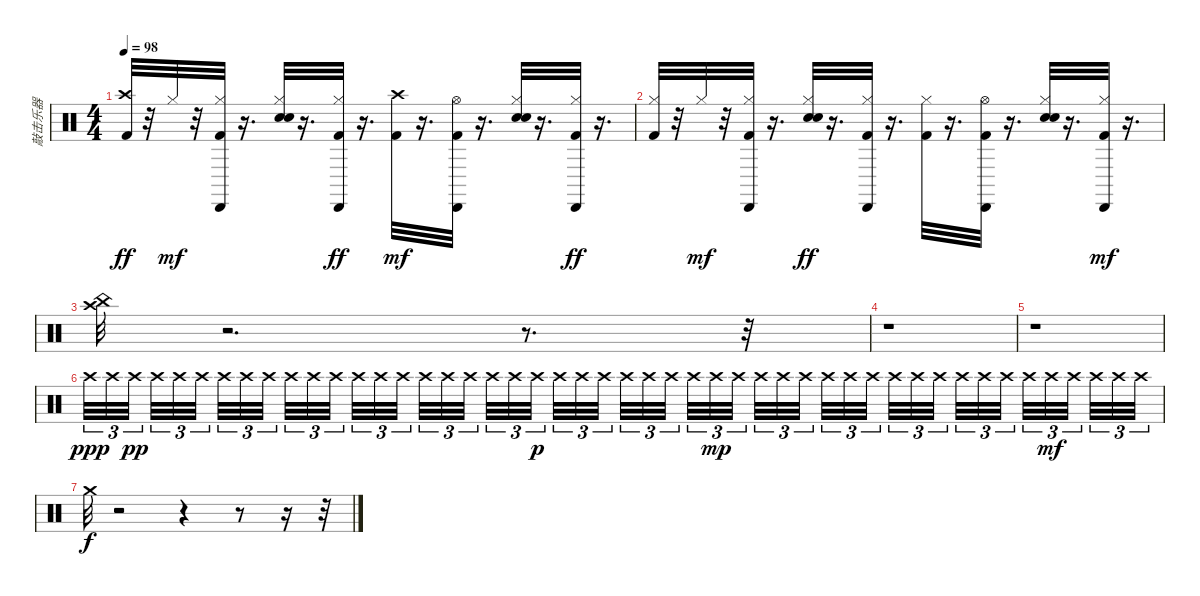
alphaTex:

\track ("敲击乐器" "敲击乐器") {instrument percussion}
\staff {score}
\articulation defaults
\ts (4 4)
\tempo 98
\clef neutral
\ks c
("Crash high (hit)" "Kick (hit) 2").32{dy ff} r.32 "Hi-Hat (closed)".32{dy mf} r.32 ("Kick (hit) 2" "Hi-Hat (closed)" "Cabasa (hit)").32 r.16{d} ("Hand Clap (hit)" "Snare (hit) 2" "Hi-Hat (closed)").32 r.16{d} ("Hi-Hat (closed)" "Cabasa (hit)" "Kick (hit) 2").32{dy ff} r.16{d} ("Kick (hit) 2" "Crash high (hit)").32{dy mf} r.16{d} ("Hi-Hat (open)" "Kick (hit) 2" "Cabasa (hit)").32 r.16{d} ("Hand Clap (hit)" "Snare (hit) 2" "Hi-Hat (closed)").32 r.16{d} ("Cabasa (hit)" "Kick (hit) 2" "Hi-Hat (closed)").32{dy ff} r.16{d} |
("Kick (hit) 2" "Hi-Hat (closed)").32 r.32 "Hi-Hat (closed)".32{dy mf} r.32 ("Cabasa (hit)" "Kick (hit) 2" "Hi-Hat (closed)").32 r.16{d} ("Hi-Hat (closed)" "Hand Clap (hit)" "Snare (hit) 2").32{dy ff} r.16{d} ("Cabasa (hit)" "Hi-Hat (closed)" "Kick (hit) 2").32 r.16{d} ("Kick (hit) 2" "Hi-Hat (closed)").32 r.16{d} ("Kick (hit) 2" "Cabasa (hit)" "Hi-Hat (open)").32 r.16{d} ("Hi-Hat (closed)" "Hand Clap (hit)" "Snare (hit) 2").32 r.16{d} ("Kick (hit) 2" "Hi-Hat (closed)" "Cabasa (hit)").32{dy mf} r.16{d} |
("China (hit)" "Crash high (hit)").32 r.2{d} r.8{d} r.32 |
r.1 |
r.1 |
"Crash high (hit)".32{tu (3 2) dy ppp} "Crash high (hit)".32{tu (3 2)} "Crash high (hit)".32{tu (3 2) dy pp beam splitsecondary} "Crash high (hit)".32{tu (3 2)} "Crash high (hit)".32{tu (3 2)} "Crash high (hit)".32{tu (3 2) beam splitsecondary} "Crash high (hit)".32{tu (3 2)} "Crash high (hit)".32{tu (3 2)} "Crash high (hit)".32{tu (3 2) beam splitsecondary} "Crash high (hit)".32{tu (3 2)} "Crash high (hit)".32{tu (3 2)} "Crash high (hit)".32{tu (3 2)} "Crash high (hit)".32{tu (3 2)} "Crash high (hit)".32{tu (3 2)} "Crash high (hit)".32{tu (3 2) beam splitsecondary} "Crash high (hit)".32{tu (3 2)} "Crash high (hit)".32{tu (3 2)} "Crash high (hit)".32{tu (3 2) beam splitsecondary} "Crash high (hit)".32{tu (3 2)} "Crash high (hit)".32{tu (3 2)} "Crash high (hit)".32{tu (3 2) dy p beam splitsecondary} "Crash high (hit)".32{tu (3 2)} "Crash high (hit)".32{tu (3 2)} "Crash high (hit)".32{tu (3 2)} "Crash high (hit)".32{tu (3 2)} "Crash high (hit)".32{tu (3 2)} "Crash high (hit)".32{tu (3 2) beam splitsecondary} "Crash high (hit)".32{tu (3 2)} "Crash high (hit)".32{tu (3 2) dy mp} "Crash high (hit)".32{tu (3 2) beam splitsecondary} "Crash high (hit)".32{tu (3 2)} "Crash high (hit)".32{tu (3 2)} "Crash high (hit)".32{tu (3 2) beam splitsecondary} "Crash high (hit)".32{tu (3 2)} "Crash high (hit)".32{tu (3 2)} "Crash high (hit)".32{tu (3 2)} "Crash high (hit)".32{tu (3 2)} "Crash high (hit)".32{tu (3 2)} "Crash high (hit)".32{tu (3 2) beam splitsecondary} "Crash high (hit)".32{tu (3 2)} "Crash high (hit)".32{tu (3 2)} "Crash high (hit)".32{tu (3 2) beam splitsecondary} "Crash high (hit)".32{tu (3 2)} "Crash high (hit)".32{tu (3 2) dy mf} "Crash high (hit)".32{tu (3 2) beam splitsecondary} "Crash high (hit)".32{tu (3 2)} "Crash high (hit)".32{tu (3 2)} "Crash high (hit)".32{tu (3 2)} |
"Crash medium (hit)".32{dy f} r.2 r.4 r.8 r.16 r.32
